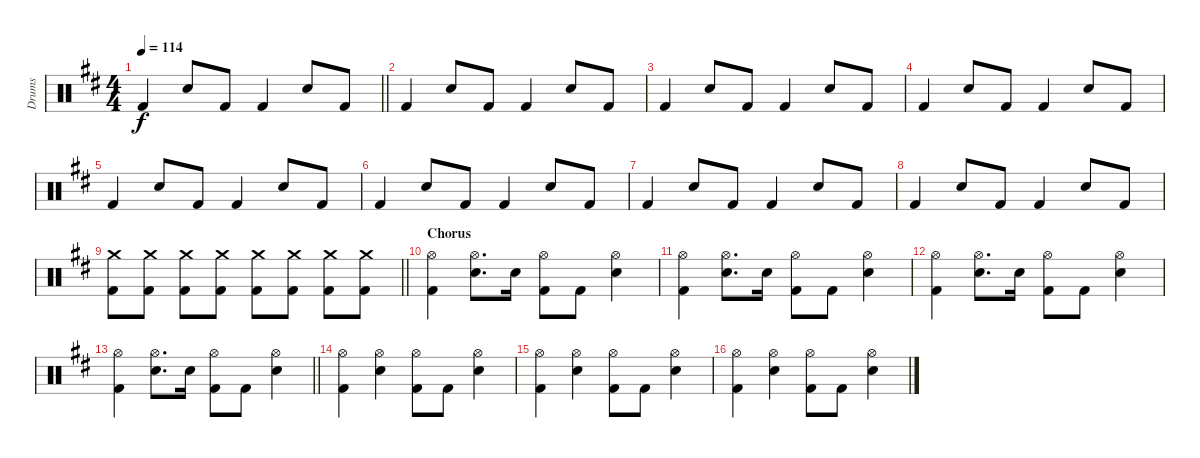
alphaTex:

\track ("Drums" "Drums") {instrument percussion}
\staff {score}
\articulation defaults
\ts (4 4)
\tempo 114
\clef neutral
\barLineRight lightlight
\ks bminor "Kick (hit) 2".4{dy f} "Snare (hit) 2".8 "Kick (hit) 2".8 "Kick (hit) 2".4 "Snare (hit) 2".8 "Kick (hit) 2".8
|
"Kick (hit) 2".4 "Snare (hit) 2".8 "Kick (hit) 2".8 "Kick (hit) 2".4 "Snare (hit) 2".8 "Kick (hit) 2".8 |
"Kick (hit) 2".4 "Snare (hit) 2".8 "Kick (hit) 2".8 "Kick (hit) 2".4 "Snare (hit) 2".8 "Kick (hit) 2".8 |
"Kick (hit) 2".4 "Snare (hit) 2".8 "Kick (hit) 2".8 "Kick (hit) 2".4 "Snare (hit) 2".8 "Kick (hit) 2".8 |
"Kick (hit) 2".4 "Snare (hit) 2".8 "Kick (hit) 2".8 "Kick (hit) 2".4 "Snare (hit) 2".8 "Kick (hit) 2".8 |
"Kick (hit) 2".4 "Snare (hit) 2".8 "Kick (hit) 2".8 "Kick (hit) 2".4 "Snare (hit) 2".8 "Kick (hit) 2".8 |
"Kick (hit) 2".4 "Snare (hit) 2".8 "Kick (hit) 2".8 "Kick (hit) 2".4 "Snare (hit) 2".8 "Kick (hit) 2".8 |
"Kick (hit) 2".4 "Snare (hit) 2".8 "Kick (hit) 2".8 "Kick (hit) 2".4 "Snare (hit) 2".8 "Kick (hit) 2".8 |
\barLineRight lightlight
("Crash medium (hit)" "Kick (hit) 2").8 ("Crash medium (hit)" "Kick (hit) 2").8 ("Crash medium (hit)" "Kick (hit) 2").8 ("Crash medium (hit)" "Kick (hit) 2").8 ("Crash medium (hit)" "Kick (hit) 2").8 ("Crash medium (hit)" "Kick (hit) 2").8 ("Crash medium (hit)" "Kick (hit) 2").8 ("Crash medium (hit)" "Kick (hit) 2").8 |
\section ("" "Chorus")
("Hi-Hat (open)" "Kick (hit) 2").4 ("Hi-Hat (open)" "Snare (hit) 2").8{d} "Snare (hit) 2".16 ("Hi-Hat (open)" "Kick (hit) 2").8 "Kick (hit) 2".8 ("Hi-Hat (open)" "Snare (hit) 2").4 |
("Hi-Hat (open)" "Kick (hit) 2").4 ("Hi-Hat (open)" "Snare (hit) 2").8{d} "Snare (hit) 2".16 ("Hi-Hat (open)" "Kick (hit) 2").8 "Kick (hit) 2".8 ("Hi-Hat (open)" "Snare (hit) 2").4 |
("Hi-Hat (open)" "Kick (hit) 2").4 ("Hi-Hat (open)" "Snare (hit) 2").8{d} "Snare (hit) 2".16 ("Hi-Hat (open)" "Kick (hit) 2").8 "Kick (hit) 2".8 ("Hi-Hat (open)" "Snare (hit) 2").4 |
\barLineRight lightlight
("Hi-Hat (open)" "Kick (hit) 2").4 ("Hi-Hat (open)" "Snare (hit) 2").8{d} "Snare (hit) 2".16 ("Hi-Hat (open)" "Kick (hit) 2").8 "Kick (hit) 2".8 ("Hi-Hat (open)" "Snare (hit) 2").4 |
("Hi-Hat (open)" "Kick (hit) 2").4 ("Hi-Hat (open)" "Snare (hit) 2").4 ("Hi-Hat (open)" "Kick (hit) 2").8 "Kick (hit) 2".8 ("Hi-Hat (open)" "Snare (hit) 2").4 |
("Hi-Hat (open)" "Kick (hit) 2").4 ("Hi-Hat (open)" "Snare (hit) 2").4 ("Hi-Hat (open)" "Kick (hit) 2").8 "Kick (hit) 2".8 ("Hi-Hat (open)" "Snare (hit) 2").4 |
("Hi-Hat (open)" "Kick (hit) 2").4 ("Hi-Hat (open)" "Snare (hit) 2").4 ("Hi-Hat (open)" "Kick (hit) 2").8 "Kick (hit) 2".8 ("Hi-Hat (open)" "Snare (hit) 2").4
